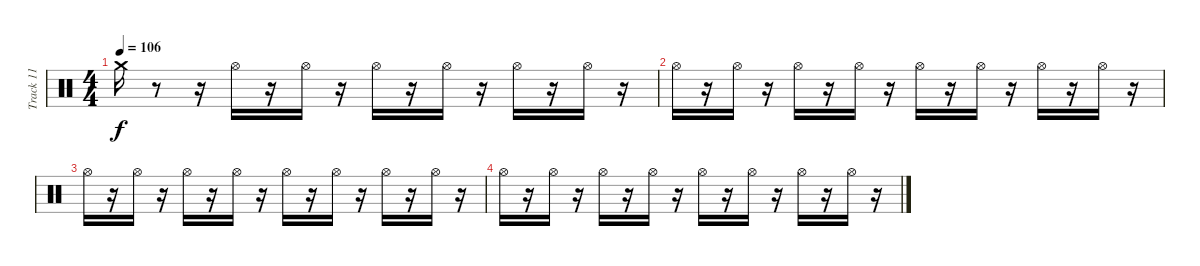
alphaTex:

\track ("Track 11" "Track 11") {instrument percussion}
\staff {score}
\articulation defaults
\ts (4 4)
\tempo 106
\clef neutral
\ks c "Crash medium (hit)".16{dy f}
r.8 r.16 "Hi-Hat (open)".16 r.16 "Hi-Hat (open)".16 r.16 "Hi-Hat (open)".16 r.16 "Hi-Hat (open)".16 r.16 "Hi-Hat (open)".16 r.16 "Hi-Hat (open)".16 r.16 |
"Hi-Hat (open)".16 r.16 "Hi-Hat (open)".16 r.16 "Hi-Hat (open)".16 r.16 "Hi-Hat (open)".16 r.16 "Hi-Hat (open)".16 r.16 "Hi-Hat (open)".16 r.16 "Hi-Hat (open)".16 r.16 "Hi-Hat (open)".16 r.16 |
"Hi-Hat (open)".16 r.16 "Hi-Hat (open)".16 r.16 "Hi-Hat (open)".16 r.16 "Hi-Hat (open)".16 r.16 "Hi-Hat (open)".16 r.16 "Hi-Hat (open)".16 r.16 "Hi-Hat (open)".16 r.16 "Hi-Hat (open)".16 r.16 |
"Hi-Hat (open)".16 r.16 "Hi-Hat (open)".16 r.16 "Hi-Hat (open)".16 r.16 "Hi-Hat (open)".16 r.16 "Hi-Hat (open)".16 r.16 "Hi-Hat (open)".16 r.16 "Hi-Hat (open)".16 r.16 "Hi-Hat (open)".16 r.16
